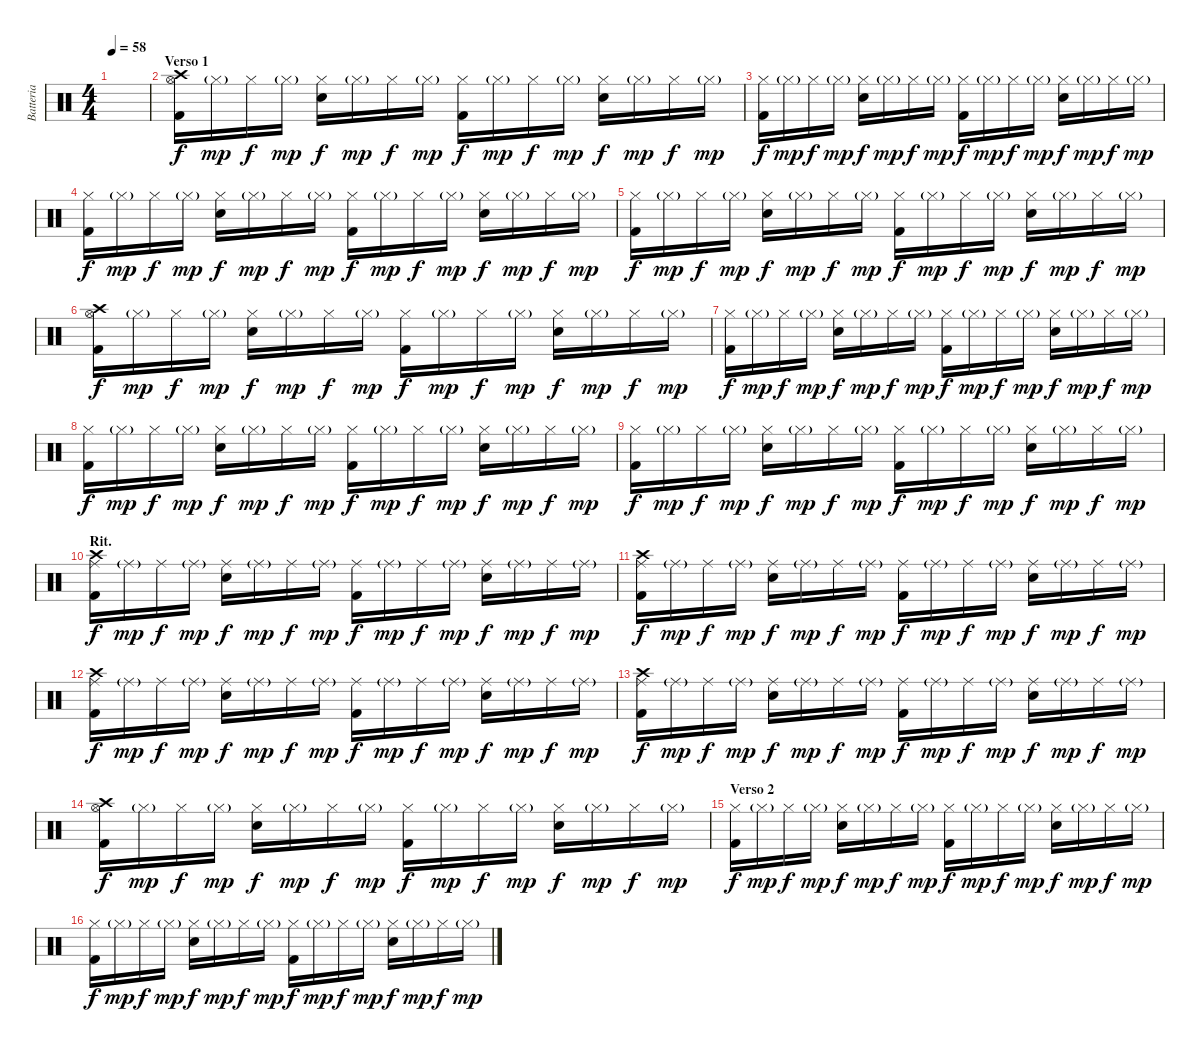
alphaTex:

\track ("Batteria" "Batteria") {instrument percussion}
\staff {score}
\articulation defaults
\ts (4 4)
\tempo 58
\clef neutral
\ks c
|
\section ("" "Verso 1")
("Hi-Hat (open)" "Crash high (hit)" "Kick (hit) 2").16 "Hi-Hat (closed)"{g}.16{dy mp} "Hi-Hat (closed)".16{dy f} "Hi-Hat (closed)"{g}.16{dy mp} ("Hi-Hat (closed)" "Electric Snare (hit)").16{dy f} "Hi-Hat (closed)"{g}.16{dy mp} "Hi-Hat (closed)".16{dy f} "Hi-Hat (closed)"{g}.16{dy mp} ("Hi-Hat (closed)" "Kick (hit) 2").16{dy f} "Hi-Hat (closed)"{g}.16{dy mp} "Hi-Hat (closed)".16{dy f} "Hi-Hat (closed)"{g}.16{dy mp} ("Hi-Hat (closed)" "Electric Snare (hit)").16{dy f} "Hi-Hat (closed)"{g}.16{dy mp} "Hi-Hat (closed)".16{dy f} "Hi-Hat (closed)"{g}.16{dy mp} |
("Hi-Hat (closed)" "Kick (hit) 2").16{dy f} "Hi-Hat (closed)"{g}.16{dy mp} "Hi-Hat (closed)".16{dy f} "Hi-Hat (closed)"{g}.16{dy mp} ("Hi-Hat (closed)" "Electric Snare (hit)").16{dy f} "Hi-Hat (closed)"{g}.16{dy mp} "Hi-Hat (closed)".16{dy f} "Hi-Hat (closed)"{g}.16{dy mp} ("Hi-Hat (closed)" "Kick (hit) 2").16{dy f} "Hi-Hat (closed)"{g}.16{dy mp} "Hi-Hat (closed)".16{dy f} "Hi-Hat (closed)"{g}.16{dy mp} ("Hi-Hat (closed)" "Electric Snare (hit)").16{dy f} "Hi-Hat (closed)"{g}.16{dy mp} "Hi-Hat (closed)".16{dy f} "Hi-Hat (closed)"{g}.16{dy mp} |
("Hi-Hat (closed)" "Kick (hit) 2").16{dy f} "Hi-Hat (closed)"{g}.16{dy mp} "Hi-Hat (closed)".16{dy f} "Hi-Hat (closed)"{g}.16{dy mp} ("Hi-Hat (closed)" "Electric Snare (hit)").16{dy f} "Hi-Hat (closed)"{g}.16{dy mp} "Hi-Hat (closed)".16{dy f} "Hi-Hat (closed)"{g}.16{dy mp} ("Hi-Hat (closed)" "Kick (hit) 2").16{dy f} "Hi-Hat (closed)"{g}.16{dy mp} "Hi-Hat (closed)".16{dy f} "Hi-Hat (closed)"{g}.16{dy mp} ("Hi-Hat (closed)" "Electric Snare (hit)").16{dy f} "Hi-Hat (closed)"{g}.16{dy mp} "Hi-Hat (closed)".16{dy f} "Hi-Hat (closed)"{g}.16{dy mp} |
("Hi-Hat (closed)" "Kick (hit) 2").16{dy f} "Hi-Hat (closed)"{g}.16{dy mp} "Hi-Hat (closed)".16{dy f} "Hi-Hat (closed)"{g}.16{dy mp} ("Hi-Hat (closed)" "Electric Snare (hit)").16{dy f} "Hi-Hat (closed)"{g}.16{dy mp} "Hi-Hat (closed)".16{dy f} "Hi-Hat (closed)"{g}.16{dy mp} ("Hi-Hat (closed)" "Kick (hit) 2").16{dy f} "Hi-Hat (closed)"{g}.16{dy mp} "Hi-Hat (closed)".16{dy f} "Hi-Hat (closed)"{g}.16{dy mp} ("Hi-Hat (closed)" "Electric Snare (hit)").16{dy f} "Hi-Hat (closed)"{g}.16{dy mp} "Hi-Hat (closed)".16{dy f} "Hi-Hat (closed)"{g}.16{dy mp} |
("Hi-Hat (open)" "Crash high (hit)" "Kick (hit) 2").16{dy f} "Hi-Hat (closed)"{g}.16{dy mp} "Hi-Hat (closed)".16{dy f} "Hi-Hat (closed)"{g}.16{dy mp} ("Hi-Hat (closed)" "Electric Snare (hit)").16{dy f} "Hi-Hat (closed)"{g}.16{dy mp} "Hi-Hat (closed)".16{dy f} "Hi-Hat (closed)"{g}.16{dy mp} ("Hi-Hat (closed)" "Kick (hit) 2").16{dy f} "Hi-Hat (closed)"{g}.16{dy mp} "Hi-Hat (closed)".16{dy f} "Hi-Hat (closed)"{g}.16{dy mp} ("Hi-Hat (closed)" "Electric Snare (hit)").16{dy f} "Hi-Hat (closed)"{g}.16{dy mp} "Hi-Hat (closed)".16{dy f} "Hi-Hat (closed)"{g}.16{dy mp} |
("Hi-Hat (closed)" "Kick (hit) 2").16{dy f} "Hi-Hat (closed)"{g}.16{dy mp} "Hi-Hat (closed)".16{dy f} "Hi-Hat (closed)"{g}.16{dy mp} ("Hi-Hat (closed)" "Electric Snare (hit)").16{dy f} "Hi-Hat (closed)"{g}.16{dy mp} "Hi-Hat (closed)".16{dy f} "Hi-Hat (closed)"{g}.16{dy mp} ("Hi-Hat (closed)" "Kick (hit) 2").16{dy f} "Hi-Hat (closed)"{g}.16{dy mp} "Hi-Hat (closed)".16{dy f} "Hi-Hat (closed)"{g}.16{dy mp} ("Hi-Hat (closed)" "Electric Snare (hit)").16{dy f} "Hi-Hat (closed)"{g}.16{dy mp} "Hi-Hat (closed)".16{dy f} "Hi-Hat (closed)"{g}.16{dy mp} |
("Hi-Hat (closed)" "Kick (hit) 2").16{dy f} "Hi-Hat (closed)"{g}.16{dy mp} "Hi-Hat (closed)".16{dy f} "Hi-Hat (closed)"{g}.16{dy mp} ("Hi-Hat (closed)" "Electric Snare (hit)").16{dy f} "Hi-Hat (closed)"{g}.16{dy mp} "Hi-Hat (closed)".16{dy f} "Hi-Hat (closed)"{g}.16{dy mp} ("Hi-Hat (closed)" "Kick (hit) 2").16{dy f} "Hi-Hat (closed)"{g}.16{dy mp} "Hi-Hat (closed)".16{dy f} "Hi-Hat (closed)"{g}.16{dy mp} ("Hi-Hat (closed)" "Electric Snare (hit)").16{dy f} "Hi-Hat (closed)"{g}.16{dy mp} "Hi-Hat (closed)".16{dy f} "Hi-Hat (closed)"{g}.16{dy mp} |
("Hi-Hat (closed)" "Kick (hit) 2").16{dy f} "Hi-Hat (closed)"{g}.16{dy mp} "Hi-Hat (closed)".16{dy f} "Hi-Hat (closed)"{g}.16{dy mp} ("Hi-Hat (closed)" "Electric Snare (hit)").16{dy f} "Hi-Hat (closed)"{g}.16{dy mp} "Hi-Hat (closed)".16{dy f} "Hi-Hat (closed)"{g}.16{dy mp} ("Hi-Hat (closed)" "Kick (hit) 2").16{dy f} "Hi-Hat (closed)"{g}.16{dy mp} "Hi-Hat (closed)".16{dy f} "Hi-Hat (closed)"{g}.16{dy mp} ("Hi-Hat (closed)" "Electric Snare (hit)").16{dy f} "Hi-Hat (closed)"{g}.16{dy mp} "Hi-Hat (closed)".16{dy f} "Hi-Hat (closed)"{g}.16{dy mp} |
\section ("" "Rit.")
("Ride (middle)" "Crash high (hit)" "Kick (hit) 2").16{dy f} "Ride (middle)"{g}.16{dy mp} "Ride (middle)".16{dy f} "Ride (middle)"{g}.16{dy mp} ("Ride (middle)" "Electric Snare (hit)").16{dy f} "Ride (middle)"{g}.16{dy mp} "Ride (middle)".16{dy f} "Ride (middle)"{g}.16{dy mp} ("Ride (middle)" "Kick (hit) 2").16{dy f} "Ride (middle)"{g}.16{dy mp} "Ride (middle)".16{dy f} "Ride (middle)"{g}.16{dy mp} ("Ride (middle)" "Electric Snare (hit)").16{dy f} "Ride (middle)"{g}.16{dy mp} "Ride (middle)".16{dy f} "Ride (middle)"{g}.16{dy mp} |
("Ride (middle)" "Crash high (hit)" "Kick (hit) 2").16{dy f} "Ride (middle)"{g}.16{dy mp} "Ride (middle)".16{dy f} "Ride (middle)"{g}.16{dy mp} ("Ride (middle)" "Electric Snare (hit)").16{dy f} "Ride (middle)"{g}.16{dy mp} "Ride (middle)".16{dy f} "Ride (middle)"{g}.16{dy mp} ("Ride (middle)" "Kick (hit) 2").16{dy f} "Ride (middle)"{g}.16{dy mp} "Ride (middle)".16{dy f} "Ride (middle)"{g}.16{dy mp} ("Ride (middle)" "Electric Snare (hit)").16{dy f} "Ride (middle)"{g}.16{dy mp} "Ride (middle)".16{dy f} "Ride (middle)"{g}.16{dy mp} |
("Ride (middle)" "Crash high (hit)" "Kick (hit) 2").16{dy f} "Ride (middle)"{g}.16{dy mp} "Ride (middle)".16{dy f} "Ride (middle)"{g}.16{dy mp} ("Ride (middle)" "Electric Snare (hit)").16{dy f} "Ride (middle)"{g}.16{dy mp} "Ride (middle)".16{dy f} "Ride (middle)"{g}.16{dy mp} ("Ride (middle)" "Kick (hit) 2").16{dy f} "Ride (middle)"{g}.16{dy mp} "Ride (middle)".16{dy f} "Ride (middle)"{g}.16{dy mp} ("Ride (middle)" "Electric Snare (hit)").16{dy f} "Ride (middle)"{g}.16{dy mp} "Ride (middle)".16{dy f} "Ride (middle)"{g}.16{dy mp} |
("Ride (middle)" "Crash high (hit)" "Kick (hit) 2").16{dy f} "Ride (middle)"{g}.16{dy mp} "Ride (middle)".16{dy f} "Ride (middle)"{g}.16{dy mp} ("Ride (middle)" "Electric Snare (hit)").16{dy f} "Ride (middle)"{g}.16{dy mp} "Ride (middle)".16{dy f} "Ride (middle)"{g}.16{dy mp} ("Ride (middle)" "Kick (hit) 2").16{dy f} "Ride (middle)"{g}.16{dy mp} "Ride (middle)".16{dy f} "Ride (middle)"{g}.16{dy mp} ("Ride (middle)" "Electric Snare (hit)").16{dy f} "Ride (middle)"{g}.16{dy mp} "Ride (middle)".16{dy f} "Ride (middle)"{g}.16{dy mp} |
("Hi-Hat (open)" "Crash high (hit)" "Kick (hit) 2").16{dy f} "Hi-Hat (closed)"{g}.16{dy mp} "Hi-Hat (closed)".16{dy f} "Hi-Hat (closed)"{g}.16{dy mp} ("Hi-Hat (closed)" "Electric Snare (hit)").16{dy f} "Hi-Hat (closed)"{g}.16{dy mp} "Hi-Hat (closed)".16{dy f} "Hi-Hat (closed)"{g}.16{dy mp} ("Hi-Hat (closed)" "Kick (hit) 2").16{dy f} "Hi-Hat (closed)"{g}.16{dy mp} "Hi-Hat (closed)".16{dy f} "Hi-Hat (closed)"{g}.16{dy mp} ("Hi-Hat (closed)" "Electric Snare (hit)").16{dy f} "Hi-Hat (closed)"{g}.16{dy mp} "Hi-Hat (closed)".16{dy f} "Hi-Hat (closed)"{g}.16{dy mp} |
\section ("" "Verso 2")
("Hi-Hat (closed)" "Kick (hit) 2").16{dy f} "Hi-Hat (closed)"{g}.16{dy mp} "Hi-Hat (closed)".16{dy f} "Hi-Hat (closed)"{g}.16{dy mp} ("Hi-Hat (closed)" "Electric Snare (hit)").16{dy f} "Hi-Hat (closed)"{g}.16{dy mp} "Hi-Hat (closed)".16{dy f} "Hi-Hat (closed)"{g}.16{dy mp} ("Hi-Hat (closed)" "Kick (hit) 2").16{dy f} "Hi-Hat (closed)"{g}.16{dy mp} "Hi-Hat (closed)".16{dy f} "Hi-Hat (closed)"{g}.16{dy mp} ("Hi-Hat (closed)" "Electric Snare (hit)").16{dy f} "Hi-Hat (closed)"{g}.16{dy mp} "Hi-Hat (closed)".16{dy f} "Hi-Hat (closed)"{g}.16{dy mp} |
("Hi-Hat (closed)" "Kick (hit) 2").16{dy f} "Hi-Hat (closed)"{g}.16{dy mp} "Hi-Hat (closed)".16{dy f} "Hi-Hat (closed)"{g}.16{dy mp} ("Hi-Hat (closed)" "Electric Snare (hit)").16{dy f} "Hi-Hat (closed)"{g}.16{dy mp} "Hi-Hat (closed)".16{dy f} "Hi-Hat (closed)"{g}.16{dy mp} ("Hi-Hat (closed)" "Kick (hit) 2").16{dy f} "Hi-Hat (closed)"{g}.16{dy mp} "Hi-Hat (closed)".16{dy f} "Hi-Hat (closed)"{g}.16{dy mp} ("Hi-Hat (closed)" "Electric Snare (hit)").16{dy f} "Hi-Hat (closed)"{g}.16{dy mp} "Hi-Hat (closed)".16{dy f} "Hi-Hat (closed)"{g}.16{dy mp}
